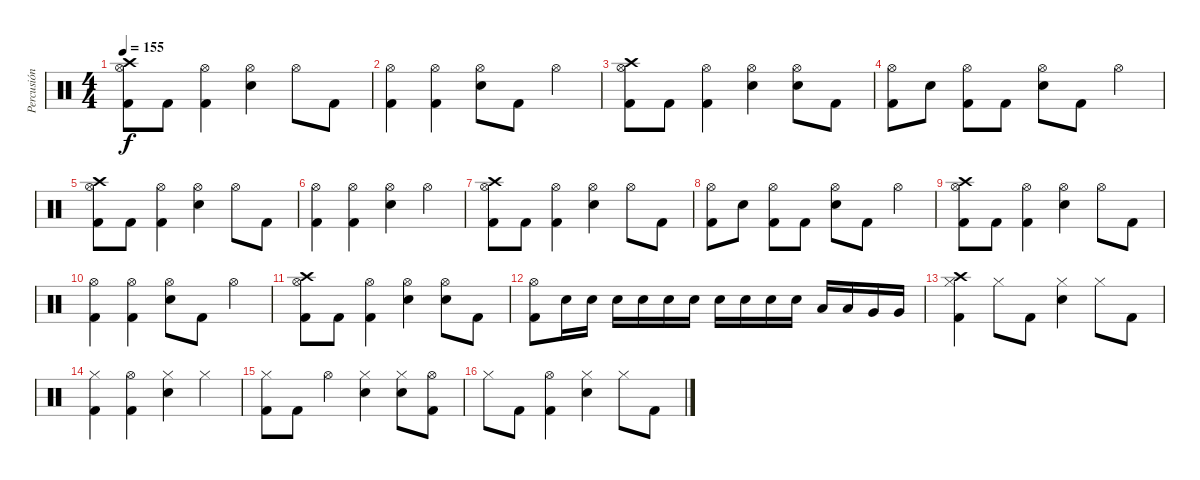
\track ("Percusión" "Percusión") {instrument percussion}
\staff {score}
\articulation defaults
\ts (4 4)
\tempo 155
\clef neutral
\ks c
("Crash high (hit)" "Hi-Hat (open)" "Kick (hit) 2").8{dy f} "Kick (hit) 2".8 ("Hi-Hat (open)" "Kick (hit) 2").4 ("Hi-Hat (open)" "Snare (hit) 2").4 "Hi-Hat (open)".8 "Kick (hit) 2".8 |
("Hi-Hat (open)" "Kick (hit) 2").4 ("Hi-Hat (open)" "Kick (hit) 2").4 ("Hi-Hat (open)" "Snare (hit) 2").8 "Kick (hit) 2".8 "Hi-Hat (open)".4 |
("Crash high (hit)" "Hi-Hat (open)" "Kick (hit) 2").8 "Kick (hit) 2".8 ("Hi-Hat (open)" "Kick (hit) 2").4 ("Hi-Hat (open)" "Snare (hit) 2").4 ("Hi-Hat (open)" "Snare (hit) 2").8 "Kick (hit) 2".8 |
("Hi-Hat (open)" "Kick (hit) 2").8 "Snare (hit) 2".8 ("Hi-Hat (open)" "Kick (hit) 2").8 "Kick (hit) 2".8 ("Hi-Hat (open)" "Snare (hit) 2").8 "Kick (hit) 2".8 "Hi-Hat (open)".4 |
("Crash high (hit)" "Hi-Hat (open)" "Kick (hit) 2").8 "Kick (hit) 2".8 ("Hi-Hat (open)" "Kick (hit) 2").4 ("Hi-Hat (open)" "Snare (hit) 2").4 "Hi-Hat (open)".8 "Kick (hit) 2".8 |
("Hi-Hat (open)" "Kick (hit) 2").4 ("Hi-Hat (open)" "Kick (hit) 2").4 ("Hi-Hat (open)" "Snare (hit) 2").4 "Hi-Hat (open)".4 |
("Crash high (hit)" "Hi-Hat (open)" "Kick (hit) 2").8 "Kick (hit) 2".8 ("Hi-Hat (open)" "Kick (hit) 2").4 ("Hi-Hat (open)" "Snare (hit) 2").4 "Hi-Hat (open)".8 "Kick (hit) 2".8 |
("Hi-Hat (open)" "Kick (hit) 2").8 "Snare (hit) 2".8 ("Hi-Hat (open)" "Kick (hit) 2").8 "Kick (hit) 2".8 ("Hi-Hat (open)" "Snare (hit) 2").8 "Kick (hit) 2".8 "Hi-Hat (open)".4 |
("Crash high (hit)" "Hi-Hat (open)" "Kick (hit) 2").8 "Kick (hit) 2".8 ("Hi-Hat (open)" "Kick (hit) 2").4 ("Hi-Hat (open)" "Snare (hit) 2").4 "Hi-Hat (open)".8 "Kick (hit) 2".8 |
("Hi-Hat (open)" "Kick (hit) 2").4 ("Hi-Hat (open)" "Kick (hit) 2").4 ("Hi-Hat (open)" "Snare (hit) 2").8 "Kick (hit) 2".8 "Hi-Hat (open)".4 |
("Crash high (hit)" "Hi-Hat (open)" "Kick (hit) 2").8 "Kick (hit) 2".8 ("Hi-Hat (open)" "Kick (hit) 2").4 ("Hi-Hat (open)" "Snare (hit) 2").4 ("Hi-Hat (open)" "Snare (hit) 2").8 "Kick (hit) 2".8 |
("Hi-Hat (open)" "Kick (hit) 2").8 "Snare (hit) 2".16 "Snare (hit) 2".16 "Snare (hit) 2".16 "Snare (hit) 2".16 "Snare (hit) 2".16 "Snare (hit) 2".16 "Snare (hit) 2".16 "Snare (hit) 2".16 "Snare (hit) 2".16 "Snare (hit) 2".16 "Low Tom (hit)".16 "Low Tom (hit)".16 "Very Low Tom (hit)".16 "Very Low Tom (hit)".16 |
("Crash high (hit)" "Hi-Hat (closed)" "Kick (hit) 2").4 "Hi-Hat (closed)".8 "Kick (hit) 2".8 ("Hi-Hat (closed)" "Electric Snare (hit)").4 "Hi-Hat (closed)".8 "Kick (hit) 2".8 |
("Hi-Hat (closed)" "Kick (hit) 2").4 ("Hi-Hat (open)" "Kick (hit) 2").4 ("Hi-Hat (closed)" "Electric Snare (hit)").4 "Hi-Hat (closed)".4 |
("Hi-Hat (closed)" "Kick (hit) 2").8 "Kick (hit) 2".8 "Hi-Hat (open)".4 ("Hi-Hat (closed)" "Electric Snare (hit)").4 ("Hi-Hat (closed)" "Electric Snare (hit)").8 ("Hi-Hat (open)" "Kick (hit) 2").8 |
"Hi-Hat (closed)".8 "Kick (hit) 2".8 ("Hi-Hat (open)" "Kick (hit) 2").4 ("Hi-Hat (closed)" "Electric Snare (hit)").4 "Hi-Hat (closed)".8 "Kick (hit) 2".8
